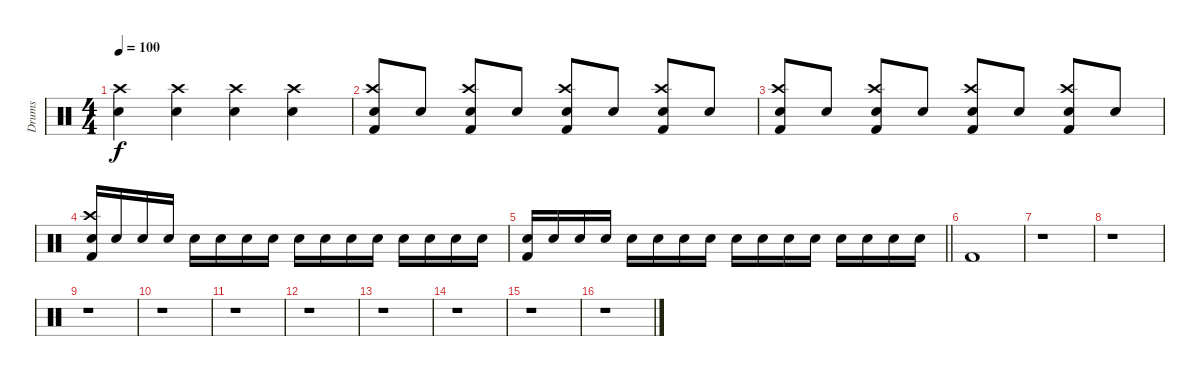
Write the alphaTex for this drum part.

\track ("Drums" "Drums") {instrument percussion}
\staff {score}
\articulation defaults
\ts (4 4)
\tempo 100
\clef neutral
\ks c
("Snare (hit) 2" "Crash high (hit)").4{dy f} ("Snare (hit) 2" "Crash high (hit)").4 ("Snare (hit) 2" "Crash high (hit)").4 ("Snare (hit) 2" "Crash high (hit)").4 |
("Kick (hit) 2" "Snare (hit) 2" "Crash high (hit)").8 "Snare (hit) 2".8 ("Kick (hit) 2" "Snare (hit) 2" "Crash high (hit)").8 "Snare (hit) 2".8 ("Kick (hit) 2" "Snare (hit) 2" "Crash high (hit)").8 "Snare (hit) 2".8 ("Kick (hit) 2" "Snare (hit) 2" "Crash high (hit)").8 "Snare (hit) 2".8 |
("Kick (hit) 2" "Snare (hit) 2" "Crash high (hit)").8 "Snare (hit) 2".8 ("Kick (hit) 2" "Snare (hit) 2" "Crash high (hit)").8 "Snare (hit) 2".8 ("Kick (hit) 2" "Snare (hit) 2" "Crash high (hit)").8 "Snare (hit) 2".8 ("Kick (hit) 2" "Snare (hit) 2" "Crash high (hit)").8 "Snare (hit) 2".8 |
("Kick (hit) 2" "Snare (hit) 2" "Crash high (hit)").16 "Snare (hit) 2".16 "Snare (hit) 2".16 "Snare (hit) 2".16 "Snare (hit) 2".16 "Snare (hit) 2".16 "Snare (hit) 2".16 "Snare (hit) 2".16 "Snare (hit) 2".16 "Snare (hit) 2".16 "Snare (hit) 2".16 "Snare (hit) 2".16 "Snare (hit) 2".16 "Snare (hit) 2".16 "Snare (hit) 2".16 "Snare (hit) 2".16 |
\barLineRight lightlight
("Kick (hit) 2" "Snare (hit) 2").16 "Snare (hit) 2".16 "Snare (hit) 2".16 "Snare (hit) 2".16 "Snare (hit) 2".16 "Snare (hit) 2".16 "Snare (hit) 2".16 "Snare (hit) 2".16 "Snare (hit) 2".16 "Snare (hit) 2".16 "Snare (hit) 2".16 "Snare (hit) 2".16 "Snare (hit) 2".16 "Snare (hit) 2".16 "Snare (hit) 2".16 "Snare (hit) 2".16 |
"Kick (hit) 2".1 |
r.1 |
r.1 |
r.1 |
r.1 |
r.1 |
r.1 |
r.1 |
r.1 |
r.1 |
r.1
